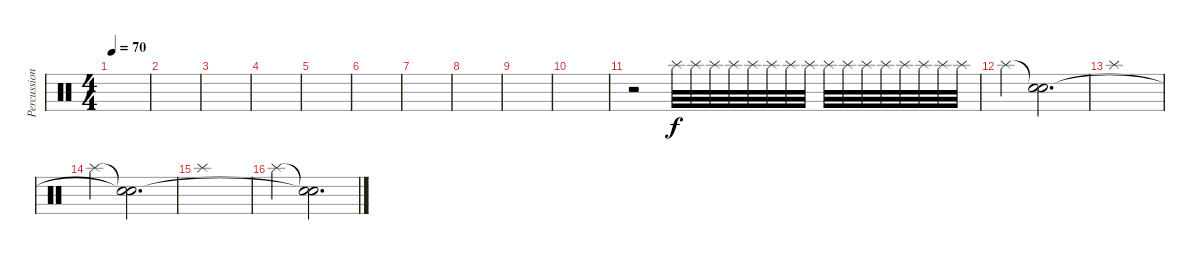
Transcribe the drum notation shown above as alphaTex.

\track ("Percussion" "Percussion") {instrument percussion}
\staff {score}
\articulation defaults
\ts (4 4)
\tempo 70
\clef neutral
\ks c
|
|
|
|
|
|
|
|
|
|
r.2{volume 0} "Splash (hit)".32{volume 16} "Splash (hit)".32 "Splash (hit)".32 "Splash (hit)".32 "Splash (hit)".32 "Splash (hit)".32 "Splash (hit)".32 "Splash (hit)".32 "Splash (hit)".32 "Splash (hit)".32 "Splash (hit)".32 "Splash (hit)".32 "Splash (hit)".32 "Splash (hit)".32 "Splash (hit)".32 "Splash (hit)".32 |
"Splash (hit)".4{volume 16} ("Snare (hit)"{t} "Snare (hit)").2{d} |
"Splash (hit)".1{volume 12} |
"Splash (hit)".4 ("Snare (hit)"{t} "Snare (hit)"{t}).2{d} |
"Splash (hit)".1 |
"Splash (hit)".4{volume 8} ("Snare (hit)"{t} "Snare (hit)"{t}).2{d}
